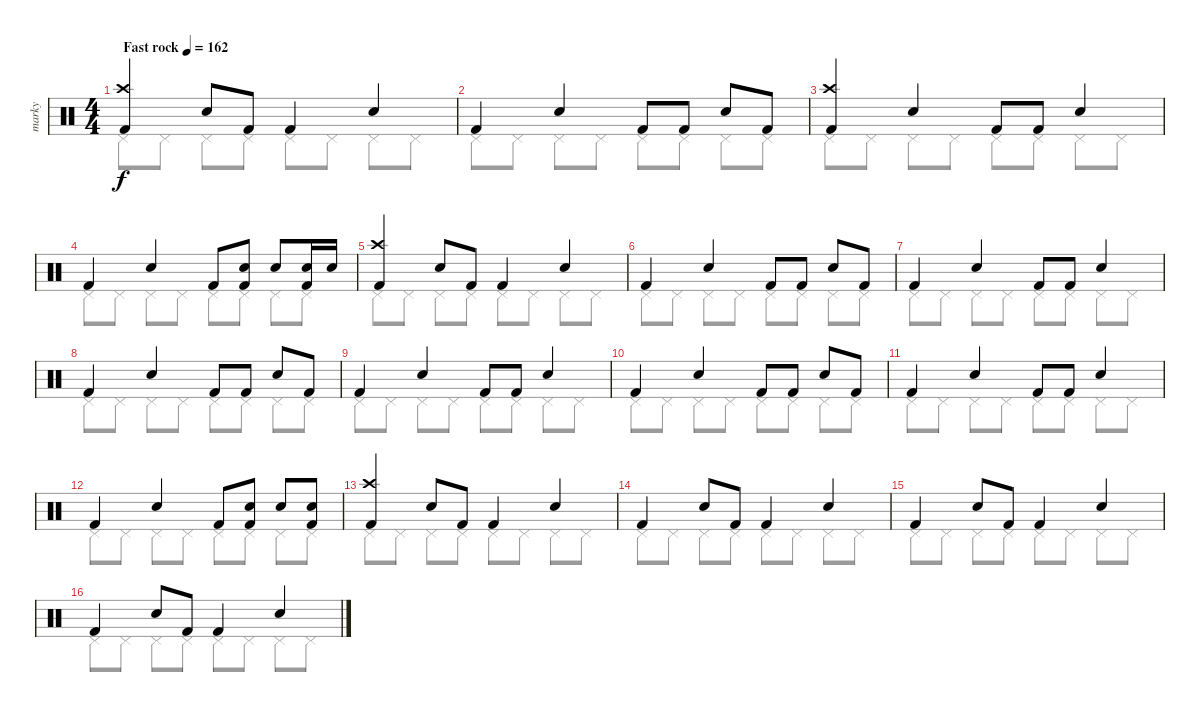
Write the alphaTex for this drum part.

\track ("marky" "marky") {instrument percussion}
\staff {score}
\articulation defaults
\voice
\ts (4 4)
\tempo (162 "Fast rock")
\clef neutral
\ks c
("Kick (hit) 2" "Crash high (hit)").4{dy f} "Electric Snare (hit)".8 "Kick (hit) 2".8 "Kick (hit) 2".4 "Electric Snare (hit)".4 |
"Kick (hit) 2".4 "Electric Snare (hit)".4 "Kick (hit) 2".8 "Kick (hit) 2".8 "Electric Snare (hit)".8 "Kick (hit) 2".8 |
("Kick (hit) 2" "Crash high (hit)").4 "Electric Snare (hit)".4 "Kick (hit) 2".8 "Kick (hit) 2".8 "Electric Snare (hit)".4 |
"Kick (hit) 2".4 "Electric Snare (hit)".4 "Kick (hit) 2".8 ("Kick (hit) 2" "Electric Snare (hit)").8 "Electric Snare (hit)".8 ("Kick (hit) 2" "Electric Snare (hit)").16 "Electric Snare (hit)".16 |
("Kick (hit) 2" "Crash high (hit)").4 "Electric Snare (hit)".8 "Kick (hit) 2".8 "Kick (hit) 2".4 "Electric Snare (hit)".4 |
"Kick (hit) 2".4 "Electric Snare (hit)".4 "Kick (hit) 2".8 "Kick (hit) 2".8 "Electric Snare (hit)".8 "Kick (hit) 2".8 |
"Kick (hit) 2".4 "Electric Snare (hit)".4 "Kick (hit) 2".8 "Kick (hit) 2".8 "Electric Snare (hit)".4 |
"Kick (hit) 2".4 "Electric Snare (hit)".4 "Kick (hit) 2".8 "Kick (hit) 2".8 "Electric Snare (hit)".8 "Kick (hit) 2".8 |
"Kick (hit) 2".4 "Electric Snare (hit)".4 "Kick (hit) 2".8 "Kick (hit) 2".8 "Electric Snare (hit)".4 |
"Kick (hit) 2".4 "Electric Snare (hit)".4 "Kick (hit) 2".8 "Kick (hit) 2".8 "Electric Snare (hit)".8 "Kick (hit) 2".8 |
"Kick (hit) 2".4 "Electric Snare (hit)".4 "Kick (hit) 2".8 "Kick (hit) 2".8 "Electric Snare (hit)".4 |
"Kick (hit) 2".4 "Electric Snare (hit)".4 "Kick (hit) 2".8 ("Kick (hit) 2" "Electric Snare (hit)").8 "Electric Snare (hit)".8 ("Kick (hit) 2" "Electric Snare (hit)").8 |
("Kick (hit) 2" "Crash high (hit)").4 "Electric Snare (hit)".8 "Kick (hit) 2".8 "Kick (hit) 2".4 "Electric Snare (hit)".4 |
"Kick (hit) 2".4 "Electric Snare (hit)".8 "Kick (hit) 2".8 "Kick (hit) 2".4 "Electric Snare (hit)".4 |
"Kick (hit) 2".4 "Electric Snare (hit)".8 "Kick (hit) 2".8 "Kick (hit) 2".4 "Electric Snare (hit)".4 |
"Kick (hit) 2".4 "Electric Snare (hit)".8 "Kick (hit) 2".8 "Kick (hit) 2".4 "Electric Snare (hit)".4
\voice
\clef neutral
\ottava regular
\simile none
\ks c "Pedal Hi-Hat (hit)".8{dy f} "Pedal Hi-Hat (hit)".8 "Pedal Hi-Hat (hit)".8 "Pedal Hi-Hat (hit)".8 "Pedal Hi-Hat (hit)".8 "Pedal Hi-Hat (hit)".8 "Pedal Hi-Hat (hit)".8 "Pedal Hi-Hat (hit)".8
|
"Pedal Hi-Hat (hit)".8 "Pedal Hi-Hat (hit)".8 "Pedal Hi-Hat (hit)".8 "Pedal Hi-Hat (hit)".8 "Pedal Hi-Hat (hit)".8 "Pedal Hi-Hat (hit)".8 "Pedal Hi-Hat (hit)".8 "Pedal Hi-Hat (hit)".8 |
"Pedal Hi-Hat (hit)".8 "Pedal Hi-Hat (hit)".8 "Pedal Hi-Hat (hit)".8 "Pedal Hi-Hat (hit)".8 "Pedal Hi-Hat (hit)".8 "Pedal Hi-Hat (hit)".8 "Pedal Hi-Hat (hit)".8 "Pedal Hi-Hat (hit)".8 |
"Pedal Hi-Hat (hit)".8 "Pedal Hi-Hat (hit)".8 "Pedal Hi-Hat (hit)".8 "Pedal Hi-Hat (hit)".8 "Pedal Hi-Hat (hit)".8 "Pedal Hi-Hat (hit)".8 "Pedal Hi-Hat (hit)".8 "Pedal Hi-Hat (hit)".8 |
"Pedal Hi-Hat (hit)".8 "Pedal Hi-Hat (hit)".8 "Pedal Hi-Hat (hit)".8 "Pedal Hi-Hat (hit)".8 "Pedal Hi-Hat (hit)".8 "Pedal Hi-Hat (hit)".8 "Pedal Hi-Hat (hit)".8 "Pedal Hi-Hat (hit)".8 |
"Pedal Hi-Hat (hit)".8 "Pedal Hi-Hat (hit)".8 "Pedal Hi-Hat (hit)".8 "Pedal Hi-Hat (hit)".8 "Pedal Hi-Hat (hit)".8 "Pedal Hi-Hat (hit)".8 "Pedal Hi-Hat (hit)".8 "Pedal Hi-Hat (hit)".8 |
"Pedal Hi-Hat (hit)".8 "Pedal Hi-Hat (hit)".8 "Pedal Hi-Hat (hit)".8 "Pedal Hi-Hat (hit)".8 "Pedal Hi-Hat (hit)".8 "Pedal Hi-Hat (hit)".8 "Pedal Hi-Hat (hit)".8 "Pedal Hi-Hat (hit)".8 |
"Pedal Hi-Hat (hit)".8 "Pedal Hi-Hat (hit)".8 "Pedal Hi-Hat (hit)".8 "Pedal Hi-Hat (hit)".8 "Pedal Hi-Hat (hit)".8 "Pedal Hi-Hat (hit)".8 "Pedal Hi-Hat (hit)".8 "Pedal Hi-Hat (hit)".8 |
"Pedal Hi-Hat (hit)".8 "Pedal Hi-Hat (hit)".8 "Pedal Hi-Hat (hit)".8 "Pedal Hi-Hat (hit)".8 "Pedal Hi-Hat (hit)".8 "Pedal Hi-Hat (hit)".8 "Pedal Hi-Hat (hit)".8 "Pedal Hi-Hat (hit)".8 |
"Pedal Hi-Hat (hit)".8 "Pedal Hi-Hat (hit)".8 "Pedal Hi-Hat (hit)".8 "Pedal Hi-Hat (hit)".8 "Pedal Hi-Hat (hit)".8 "Pedal Hi-Hat (hit)".8 "Pedal Hi-Hat (hit)".8 "Pedal Hi-Hat (hit)".8 |
"Pedal Hi-Hat (hit)".8 "Pedal Hi-Hat (hit)".8 "Pedal Hi-Hat (hit)".8 "Pedal Hi-Hat (hit)".8 "Pedal Hi-Hat (hit)".8 "Pedal Hi-Hat (hit)".8 "Pedal Hi-Hat (hit)".8 "Pedal Hi-Hat (hit)".8 |
"Pedal Hi-Hat (hit)".8 "Pedal Hi-Hat (hit)".8 "Pedal Hi-Hat (hit)".8 "Pedal Hi-Hat (hit)".8 "Pedal Hi-Hat (hit)".8 "Pedal Hi-Hat (hit)".8 "Pedal Hi-Hat (hit)".8 "Pedal Hi-Hat (hit)".8 |
"Pedal Hi-Hat (hit)".8 "Pedal Hi-Hat (hit)".8 "Pedal Hi-Hat (hit)".8 "Pedal Hi-Hat (hit)".8 "Pedal Hi-Hat (hit)".8 "Pedal Hi-Hat (hit)".8 "Pedal Hi-Hat (hit)".8 "Pedal Hi-Hat (hit)".8 |
"Pedal Hi-Hat (hit)".8 "Pedal Hi-Hat (hit)".8 "Pedal Hi-Hat (hit)".8 "Pedal Hi-Hat (hit)".8 "Pedal Hi-Hat (hit)".8 "Pedal Hi-Hat (hit)".8 "Pedal Hi-Hat (hit)".8 "Pedal Hi-Hat (hit)".8 |
"Pedal Hi-Hat (hit)".8 "Pedal Hi-Hat (hit)".8 "Pedal Hi-Hat (hit)".8 "Pedal Hi-Hat (hit)".8 "Pedal Hi-Hat (hit)".8 "Pedal Hi-Hat (hit)".8 "Pedal Hi-Hat (hit)".8 "Pedal Hi-Hat (hit)".8 |
"Pedal Hi-Hat (hit)".8 "Pedal Hi-Hat (hit)".8 "Pedal Hi-Hat (hit)".8 "Pedal Hi-Hat (hit)".8 "Pedal Hi-Hat (hit)".8 "Pedal Hi-Hat (hit)".8 "Pedal Hi-Hat (hit)".8 "Pedal Hi-Hat (hit)".8
